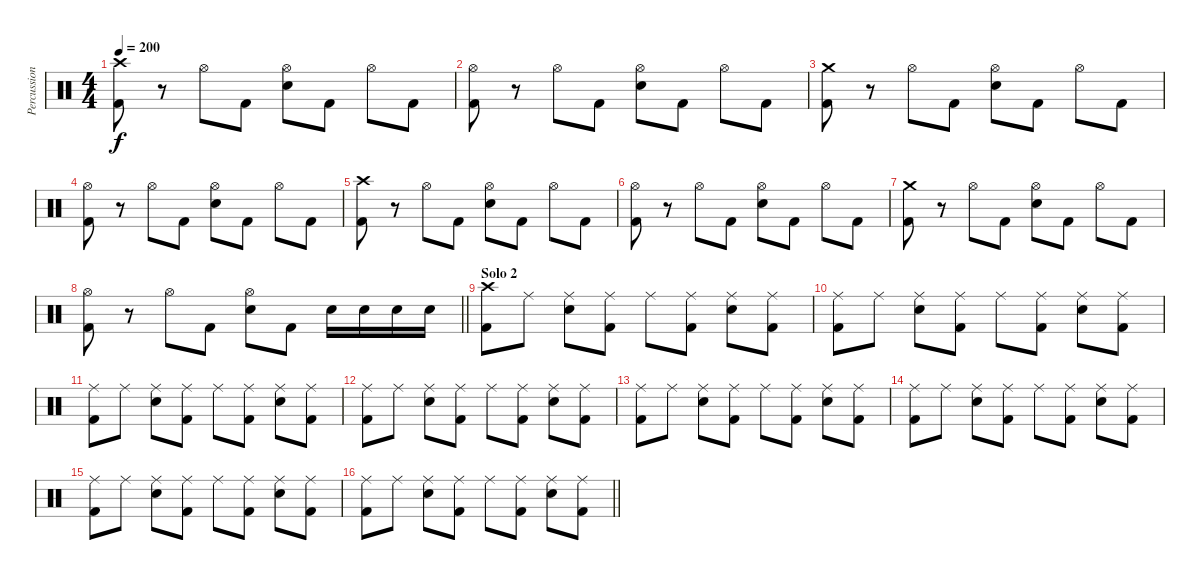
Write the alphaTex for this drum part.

\track ("Percussion" "Percussion") {instrument percussion}
\staff {score}
\articulation defaults
\ts (4 4)
\tempo 200
\clef neutral
\ks c
("Crash high (hit)" "Kick (hit) 2").8{dy f} r.8 "Hi-Hat (open)".8 "Kick (hit) 2".8 ("Hi-Hat (open)" "Snare (hit) 2").8 "Kick (hit) 2".8 "Hi-Hat (open)".8 "Kick (hit) 2".8 |
("Hi-Hat (open)" "Kick (hit) 2").8 r.8 "Hi-Hat (open)".8 "Kick (hit) 2".8 ("Hi-Hat (open)" "Snare (hit) 2").8 "Kick (hit) 2".8 "Hi-Hat (open)".8 "Kick (hit) 2".8 |
("Crash medium (hit)" "Kick (hit) 2").8 r.8 "Hi-Hat (open)".8 "Kick (hit) 2".8 ("Hi-Hat (open)" "Snare (hit) 2").8 "Kick (hit) 2".8 "Hi-Hat (open)".8 "Kick (hit) 2".8 |
("Hi-Hat (open)" "Kick (hit) 2").8 r.8 "Hi-Hat (open)".8 "Kick (hit) 2".8 ("Hi-Hat (open)" "Snare (hit) 2").8 "Kick (hit) 2".8 "Hi-Hat (open)".8 "Kick (hit) 2".8 |
("Crash high (hit)" "Kick (hit) 2").8 r.8 "Hi-Hat (open)".8 "Kick (hit) 2".8 ("Hi-Hat (open)" "Snare (hit) 2").8 "Kick (hit) 2".8 "Hi-Hat (open)".8 "Kick (hit) 2".8 |
("Hi-Hat (open)" "Kick (hit) 2").8 r.8 "Hi-Hat (open)".8 "Kick (hit) 2".8 ("Hi-Hat (open)" "Snare (hit) 2").8 "Kick (hit) 2".8 "Hi-Hat (open)".8 "Kick (hit) 2".8 |
("Crash medium (hit)" "Kick (hit) 2").8 r.8 "Hi-Hat (open)".8 "Kick (hit) 2".8 ("Hi-Hat (open)" "Snare (hit) 2").8 "Kick (hit) 2".8 "Hi-Hat (open)".8 "Kick (hit) 2".8 |
\barLineRight lightlight
("Hi-Hat (open)" "Kick (hit) 2").8 r.8 "Hi-Hat (open)".8 "Kick (hit) 2".8 ("Hi-Hat (open)" "Snare (hit) 2").8 "Kick (hit) 2".8 "Snare (hit) 2".16 "Snare (hit) 2".16 "Snare (hit) 2".16 "Snare (hit) 2".16 |
\section ("" "Solo 2")
("Crash high (hit)" "Kick (hit) 2").8 "Ride (middle)".8 ("Ride (middle)" "Snare (hit) 2").8 ("Ride (middle)" "Kick (hit) 2").8 "Ride (middle)".8 ("Ride (middle)" "Kick (hit) 2").8 ("Ride (middle)" "Snare (hit) 2").8 ("Ride (middle)" "Kick (hit) 2").8 |
("Ride (middle)" "Kick (hit) 2").8 "Ride (middle)".8 ("Ride (middle)" "Snare (hit) 2").8 ("Ride (middle)" "Kick (hit) 2").8 "Ride (middle)".8 ("Ride (middle)" "Kick (hit) 2").8 ("Ride (middle)" "Snare (hit) 2").8 ("Ride (middle)" "Kick (hit) 2").8 |
("Ride (middle)" "Kick (hit) 2").8 "Ride (middle)".8 ("Ride (middle)" "Snare (hit) 2").8 ("Ride (middle)" "Kick (hit) 2").8 "Ride (middle)".8 ("Ride (middle)" "Kick (hit) 2").8 ("Ride (middle)" "Snare (hit) 2").8 ("Ride (middle)" "Kick (hit) 2").8 |
("Ride (middle)" "Kick (hit) 2").8 "Ride (middle)".8 ("Ride (middle)" "Snare (hit) 2").8 ("Ride (middle)" "Kick (hit) 2").8 "Ride (middle)".8 ("Ride (middle)" "Kick (hit) 2").8 ("Ride (middle)" "Snare (hit) 2").8 ("Ride (middle)" "Kick (hit) 2").8 |
("Ride (middle)" "Kick (hit) 2").8 "Ride (middle)".8 ("Ride (middle)" "Snare (hit) 2").8 ("Ride (middle)" "Kick (hit) 2").8 "Ride (middle)".8 ("Ride (middle)" "Kick (hit) 2").8 ("Ride (middle)" "Snare (hit) 2").8 ("Ride (middle)" "Kick (hit) 2").8 |
("Ride (middle)" "Kick (hit) 2").8 "Ride (middle)".8 ("Ride (middle)" "Snare (hit) 2").8 ("Ride (middle)" "Kick (hit) 2").8 "Ride (middle)".8 ("Ride (middle)" "Kick (hit) 2").8 ("Ride (middle)" "Snare (hit) 2").8 ("Ride (middle)" "Kick (hit) 2").8 |
("Ride (middle)" "Kick (hit) 2").8 "Ride (middle)".8 ("Ride (middle)" "Snare (hit) 2").8 ("Ride (middle)" "Kick (hit) 2").8 "Ride (middle)".8 ("Ride (middle)" "Kick (hit) 2").8 ("Ride (middle)" "Snare (hit) 2").8 ("Ride (middle)" "Kick (hit) 2").8 |
\barLineRight lightlight
("Ride (middle)" "Kick (hit) 2").8 "Ride (middle)".8 ("Ride (middle)" "Snare (hit) 2").8 ("Ride (middle)" "Kick (hit) 2").8 "Ride (middle)".8 ("Ride (middle)" "Kick (hit) 2").8 ("Ride (middle)" "Snare (hit) 2").8 ("Ride (middle)" "Kick (hit) 2").8
